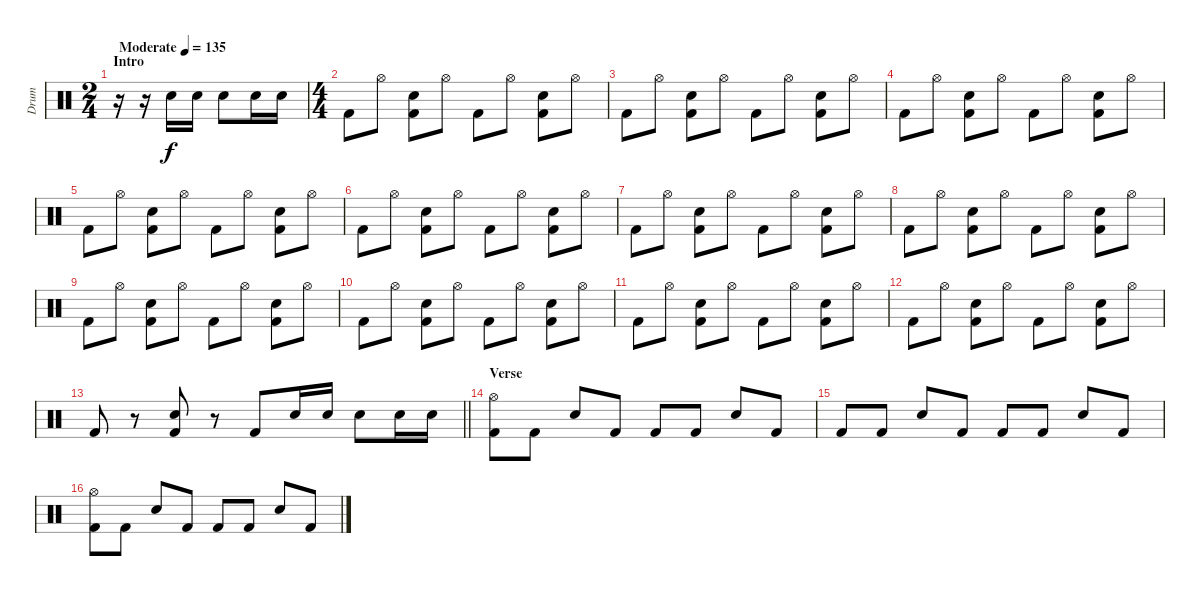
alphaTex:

\track ("Drum" "Drum") {instrument percussion}
\staff {score}
\articulation defaults
\ts (2 4)
\section ("" "Intro")
\tempo (135 "Moderate")
\clef neutral
\ks c
r.16{dy f} r.16 "Electric Snare (hit)".16 "Electric Snare (hit)".16 "Electric Snare (hit)".8 "Electric Snare (hit)".16 "Electric Snare (hit)".16 |
\ts (4 4)
"Kick (hit) 2".8 "Hi-Hat (open)".8 ("Electric Snare (hit)" "Kick (hit) 2").8 "Hi-Hat (open)".8 "Kick (hit) 2".8 "Hi-Hat (open)".8 ("Electric Snare (hit)" "Kick (hit) 2").8 "Hi-Hat (open)".8 |
"Kick (hit) 2".8 "Hi-Hat (open)".8 ("Electric Snare (hit)" "Kick (hit) 2").8 "Hi-Hat (open)".8 "Kick (hit) 2".8 "Hi-Hat (open)".8 ("Electric Snare (hit)" "Kick (hit) 2").8 "Hi-Hat (open)".8 |
"Kick (hit) 2".8 "Hi-Hat (open)".8 ("Electric Snare (hit)" "Kick (hit) 2").8 "Hi-Hat (open)".8 "Kick (hit) 2".8 "Hi-Hat (open)".8 ("Electric Snare (hit)" "Kick (hit) 2").8 "Hi-Hat (open)".8 |
"Kick (hit) 2".8 "Hi-Hat (open)".8 ("Electric Snare (hit)" "Kick (hit) 2").8 "Hi-Hat (open)".8 "Kick (hit) 2".8 "Hi-Hat (open)".8 ("Electric Snare (hit)" "Kick (hit) 2").8 "Hi-Hat (open)".8 |
"Kick (hit) 2".8 "Hi-Hat (open)".8 ("Electric Snare (hit)" "Kick (hit) 2").8 "Hi-Hat (open)".8 "Kick (hit) 2".8 "Hi-Hat (open)".8 ("Electric Snare (hit)" "Kick (hit) 2").8 "Hi-Hat (open)".8 |
"Kick (hit) 2".8 "Hi-Hat (open)".8 ("Electric Snare (hit)" "Kick (hit) 2").8 "Hi-Hat (open)".8 "Kick (hit) 2".8 "Hi-Hat (open)".8 ("Electric Snare (hit)" "Kick (hit) 2").8 "Hi-Hat (open)".8 |
"Kick (hit) 2".8 "Hi-Hat (open)".8 ("Electric Snare (hit)" "Kick (hit) 2").8 "Hi-Hat (open)".8 "Kick (hit) 2".8 "Hi-Hat (open)".8 ("Electric Snare (hit)" "Kick (hit) 2").8 "Hi-Hat (open)".8 |
"Kick (hit) 2".8 "Hi-Hat (open)".8 ("Electric Snare (hit)" "Kick (hit) 2").8 "Hi-Hat (open)".8 "Kick (hit) 2".8 "Hi-Hat (open)".8 ("Electric Snare (hit)" "Kick (hit) 2").8 "Hi-Hat (open)".8 |
"Kick (hit) 2".8 "Hi-Hat (open)".8 ("Electric Snare (hit)" "Kick (hit) 2").8 "Hi-Hat (open)".8 "Kick (hit) 2".8 "Hi-Hat (open)".8 ("Electric Snare (hit)" "Kick (hit) 2").8 "Hi-Hat (open)".8 |
"Kick (hit) 2".8 "Hi-Hat (open)".8 ("Electric Snare (hit)" "Kick (hit) 2").8 "Hi-Hat (open)".8 "Kick (hit) 2".8 "Hi-Hat (open)".8 ("Electric Snare (hit)" "Kick (hit) 2").8 "Hi-Hat (open)".8 |
"Kick (hit) 2".8 "Hi-Hat (open)".8 ("Electric Snare (hit)" "Kick (hit) 2").8 "Hi-Hat (open)".8 "Kick (hit) 2".8 "Hi-Hat (open)".8 ("Electric Snare (hit)" "Kick (hit) 2").8 "Hi-Hat (open)".8 |
\barLineRight lightlight "Kick (hit) 2".8
r.8 ("Electric Snare (hit)" "Kick (hit) 2").8 r.8 "Kick (hit) 2".8 "Electric Snare (hit)".16 "Electric Snare (hit)".16 "Electric Snare (hit)".8 "Electric Snare (hit)".16 "Electric Snare (hit)".16 |
\section ("" "Verse")
("Hi-Hat (open)" "Kick (hit) 2").8 "Kick (hit) 2".8 "Electric Snare (hit)".8 "Kick (hit) 2".8 "Kick (hit) 2".8 "Kick (hit) 2".8 "Electric Snare (hit)".8 "Kick (hit) 2".8 |
"Kick (hit) 2".8 "Kick (hit) 2".8 "Electric Snare (hit)".8 "Kick (hit) 2".8 "Kick (hit) 2".8 "Kick (hit) 2".8 "Electric Snare (hit)".8 "Kick (hit) 2".8 |
("Hi-Hat (open)" "Kick (hit) 2").8 "Kick (hit) 2".8 "Electric Snare (hit)".8 "Kick (hit) 2".8 "Kick (hit) 2".8 "Kick (hit) 2".8 "Electric Snare (hit)".8 "Kick (hit) 2".8
